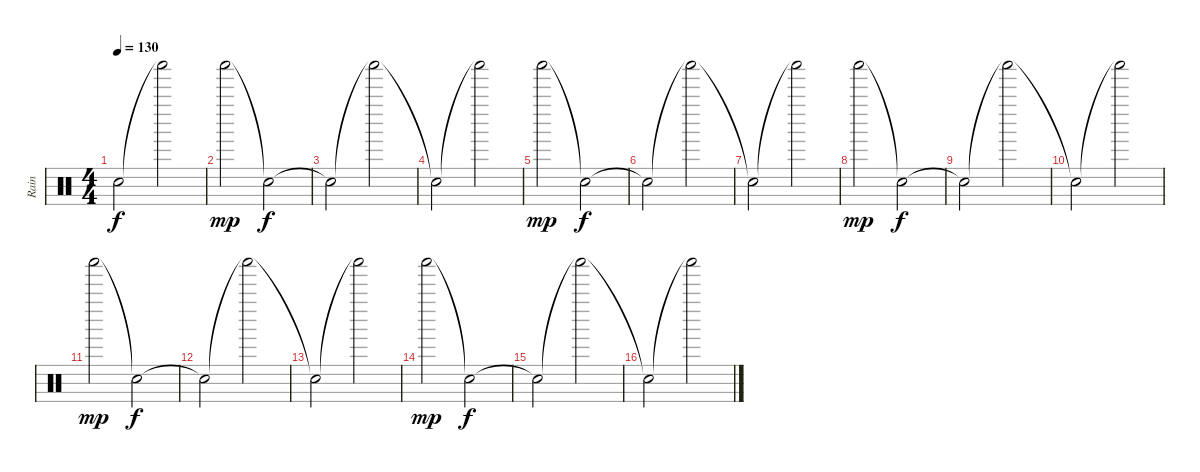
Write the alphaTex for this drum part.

\track ("Rain" "Rain") {instrument percussion}
\staff {score}
\articulation defaults
\ts (4 4)
\tempo 130
\clef neutral
\ks c "Snare (hit)"{t}.2{dy f} "Shaker (hit)"{t}.2
|
"Shaker (hit)".2{dy mp} "Snare (hit)"{t}.2{dy f} |
"Snare (hit)"{t}.2 "Shaker (hit)"{t}.2 |
"Snare (hit)"{t}.2 "Shaker (hit)"{t}.2 |
"Shaker (hit)".2{dy mp} "Snare (hit)"{t}.2{dy f} |
"Snare (hit)"{t}.2 "Shaker (hit)"{t}.2 |
"Snare (hit)"{t}.2 "Shaker (hit)"{t}.2 |
"Shaker (hit)".2{dy mp} "Snare (hit)"{t}.2{dy f} |
"Snare (hit)"{t}.2 "Shaker (hit)"{t}.2 |
"Snare (hit)"{t}.2 "Shaker (hit)"{t}.2 |
"Shaker (hit)".2{dy mp} "Snare (hit)"{t}.2{dy f} |
"Snare (hit)"{t}.2 "Shaker (hit)"{t}.2 |
"Snare (hit)"{t}.2 "Shaker (hit)"{t}.2 |
"Shaker (hit)".2{dy mp} "Snare (hit)"{t}.2{dy f} |
"Snare (hit)"{t}.2 "Shaker (hit)"{t}.2 |
"Snare (hit)"{t}.2 "Shaker (hit)"{t}.2
